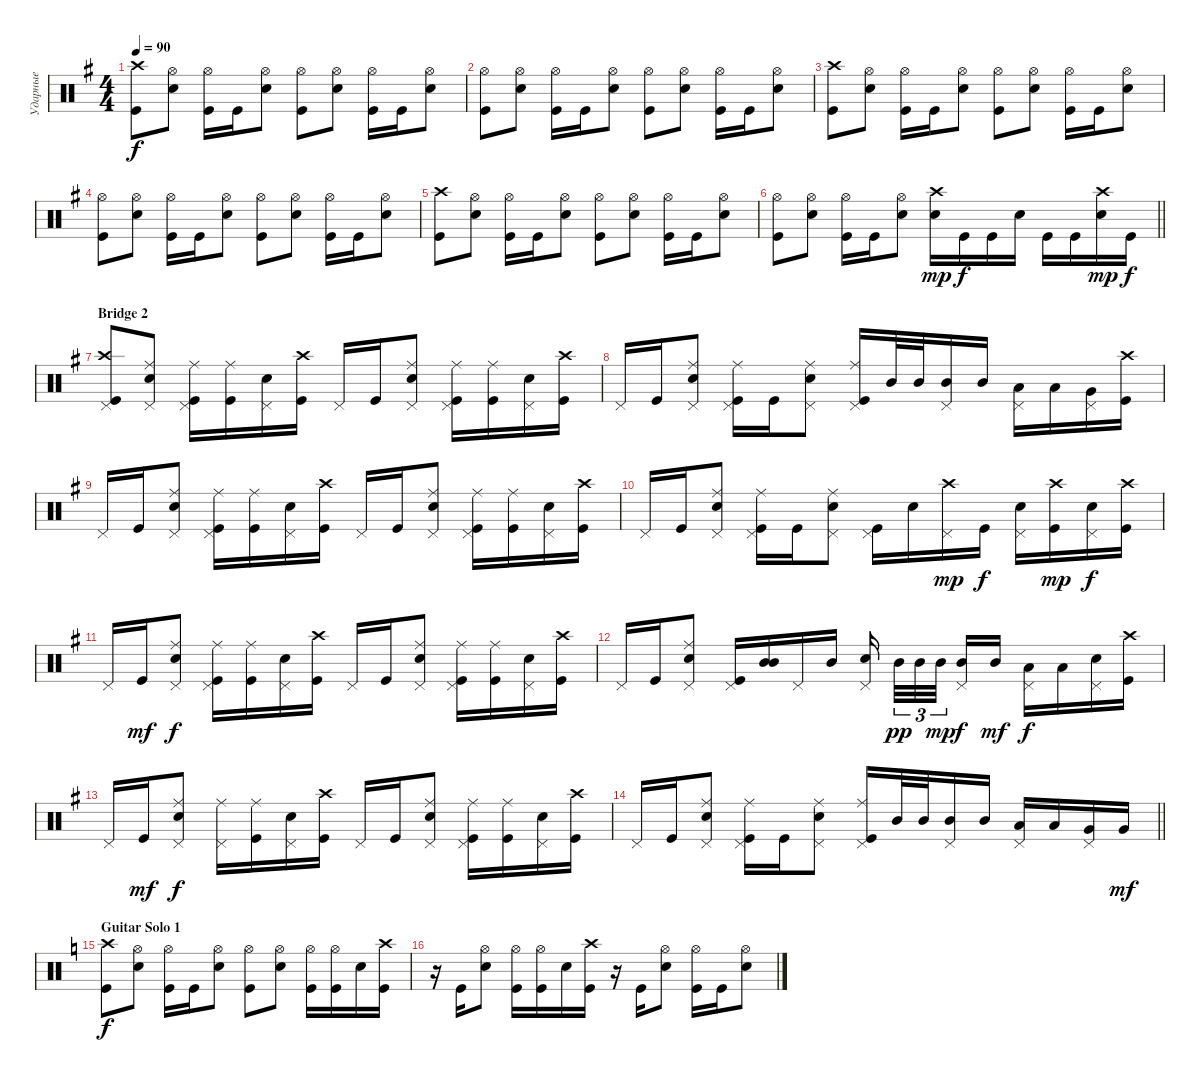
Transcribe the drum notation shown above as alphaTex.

\track ("Ударные" "Ударные") {instrument percussion}
\staff {score}
\articulation defaults
\ts (4 4)
\tempo 90
\clef neutral
\ks eminor
("Kick (hit)" "Crash high (hit)").8{dy f} ("Snare (hit) 2" "Hi-Hat (open)").8 ("Kick (hit)" "Hi-Hat (open)").16 "Kick (hit)".16 ("Snare (hit) 2" "Hi-Hat (open)").8 ("Kick (hit)" "Hi-Hat (open)").8 ("Snare (hit) 2" "Hi-Hat (open)").8 ("Kick (hit)" "Hi-Hat (open)").16 "Kick (hit)".16 ("Snare (hit) 2" "Hi-Hat (open)").8 |
("Kick (hit)" "Hi-Hat (open)").8 ("Snare (hit) 2" "Hi-Hat (open)").8 ("Kick (hit)" "Hi-Hat (open)").16 "Kick (hit)".16 ("Snare (hit) 2" "Hi-Hat (open)").8 ("Kick (hit)" "Hi-Hat (open)").8 ("Snare (hit) 2" "Hi-Hat (open)").8 ("Kick (hit)" "Hi-Hat (open)").16 "Kick (hit)".16 ("Snare (hit) 2" "Hi-Hat (open)").8 |
("Kick (hit)" "Crash high (hit)").8 ("Snare (hit) 2" "Hi-Hat (open)").8 ("Kick (hit)" "Hi-Hat (open)").16 "Kick (hit)".16 ("Snare (hit) 2" "Hi-Hat (open)").8 ("Kick (hit)" "Hi-Hat (open)").8 ("Snare (hit) 2" "Hi-Hat (open)").8 ("Kick (hit)" "Hi-Hat (open)").16 "Kick (hit)".16 ("Snare (hit) 2" "Hi-Hat (open)").8 |
("Kick (hit)" "Hi-Hat (open)").8 ("Snare (hit) 2" "Hi-Hat (open)").8 ("Kick (hit)" "Hi-Hat (open)").16 "Kick (hit)".16 ("Snare (hit) 2" "Hi-Hat (open)").8 ("Kick (hit)" "Hi-Hat (open)").8 ("Snare (hit) 2" "Hi-Hat (open)").8 ("Kick (hit)" "Hi-Hat (open)").16 "Kick (hit)".16 ("Snare (hit) 2" "Hi-Hat (open)").8 |
("Kick (hit)" "Crash high (hit)").8 ("Snare (hit) 2" "Hi-Hat (open)").8 ("Kick (hit)" "Hi-Hat (open)").16 "Kick (hit)".16 ("Snare (hit) 2" "Hi-Hat (open)").8 ("Kick (hit)" "Hi-Hat (open)").8 ("Snare (hit) 2" "Hi-Hat (open)").8 ("Kick (hit)" "Hi-Hat (open)").16 "Kick (hit)".16 ("Snare (hit) 2" "Hi-Hat (open)").8 |
\barLineRight lightlight
("Kick (hit)" "Hi-Hat (open)").8 ("Snare (hit) 2" "Hi-Hat (open)").8 ("Kick (hit)" "Hi-Hat (open)").16 "Kick (hit)".16 ("Snare (hit) 2" "Hi-Hat (open)").8 ("Snare (hit) 2" "Crash high (hit)").16{dy mp} "Kick (hit)".16{dy f} "Kick (hit)".16 "Snare (hit) 2".16 "Kick (hit)".16 "Kick (hit)".16 ("Snare (hit) 2" "Crash high (hit)").16{dy mp} "Kick (hit)".16{dy f} |
\section ("" "Bridge 2")
("Kick (hit)" "Crash high (hit)" "Pedal Hi-Hat (hit)").8 ("Snare (hit) 2" "Ride (middle)" "Pedal Hi-Hat (hit)").8 ("Kick (hit)" "Ride (middle)" "Pedal Hi-Hat (hit)").16 ("Kick (hit)" "Ride (middle)").16 ("Snare (hit) 2" "Pedal Hi-Hat (hit)").16 ("Kick (hit)" "Crash high (hit)").16 "Pedal Hi-Hat (hit)".16 "Kick (hit)".16 ("Snare (hit) 2" "Ride (middle)" "Pedal Hi-Hat (hit)").8 ("Kick (hit)" "Ride (middle)" "Pedal Hi-Hat (hit)").16 ("Kick (hit)" "Ride (middle)").16 ("Snare (hit) 2" "Pedal Hi-Hat (hit)").16 ("Kick (hit)" "Crash high (hit)").16 |
"Pedal Hi-Hat (hit)".16 "Kick (hit)".16 ("Snare (hit) 2" "Pedal Hi-Hat (hit)" "Ride (middle)").8 ("Kick (hit)" "Pedal Hi-Hat (hit)" "Ride (middle)").16 "Kick (hit)".16 ("Snare (hit) 2" "Pedal Hi-Hat (hit)" "Ride (middle)").8 ("Kick (hit)" "Pedal Hi-Hat (hit)" "Ride (middle)").16 "Mid Tom (hit)".32 "Mid Tom (hit)".32 ("Mid Tom (hit)" "Pedal Hi-Hat (hit)").16 "Mid Tom (hit)".16 ("Low Tom (hit)" "Pedal Hi-Hat (hit)").16 "Low Tom (hit)".16 ("Very Low Tom (hit)" "Pedal Hi-Hat (hit)").16 ("Kick (hit)" "Crash high (hit)").16 |
"Pedal Hi-Hat (hit)".16 "Kick (hit)".16 ("Snare (hit) 2" "Ride (middle)" "Pedal Hi-Hat (hit)").8 ("Kick (hit)" "Ride (middle)" "Pedal Hi-Hat (hit)").16 ("Kick (hit)" "Ride (middle)").16 ("Snare (hit) 2" "Pedal Hi-Hat (hit)").16 ("Kick (hit)" "Crash high (hit)").16 "Pedal Hi-Hat (hit)".16 "Kick (hit)".16 ("Snare (hit) 2" "Ride (middle)" "Pedal Hi-Hat (hit)").8 ("Kick (hit)" "Ride (middle)" "Pedal Hi-Hat (hit)").16 ("Kick (hit)" "Ride (middle)").16 ("Snare (hit) 2" "Pedal Hi-Hat (hit)").16 ("Kick (hit)" "Crash high (hit)").16 |
"Pedal Hi-Hat (hit)".16 "Kick (hit)".16 ("Snare (hit) 2" "Pedal Hi-Hat (hit)" "Ride (middle)").8 ("Kick (hit)" "Pedal Hi-Hat (hit)" "Ride (middle)").16 "Kick (hit)".16 ("Snare (hit) 2" "Pedal Hi-Hat (hit)" "Ride (middle)").8 ("Kick (hit)" "Pedal Hi-Hat (hit)").16 "Snare (hit) 2".16 ("Pedal Hi-Hat (hit)" "Crash high (hit)").16{dy mp} "Kick (hit)".16{dy f} ("Snare (hit) 2" "Pedal Hi-Hat (hit)").16 ("Kick (hit)" "Crash high (hit)").16{dy mp} ("Snare (hit) 2" "Pedal Hi-Hat (hit)").16{dy f} ("Kick (hit)" "Crash high (hit)").16 |
"Pedal Hi-Hat (hit)".16 "Kick (hit)".16{dy mf} ("Snare (hit) 2" "Ride (middle)" "Pedal Hi-Hat (hit)").8{dy f} ("Kick (hit)" "Ride (middle)" "Pedal Hi-Hat (hit)").16 ("Kick (hit)" "Ride (middle)").16 ("Snare (hit) 2" "Pedal Hi-Hat (hit)").16 ("Kick (hit)" "Crash high (hit)").16 "Pedal Hi-Hat (hit)".16 "Kick (hit)".16 ("Snare (hit) 2" "Ride (middle)" "Pedal Hi-Hat (hit)").8 ("Kick (hit)" "Ride (middle)" "Pedal Hi-Hat (hit)").16 ("Kick (hit)" "Ride (middle)").16 ("Snare (hit) 2" "Pedal Hi-Hat (hit)").16 ("Kick (hit)" "Crash high (hit)").16 |
"Pedal Hi-Hat (hit)".16 "Kick (hit)".16 ("Snare (hit) 2" "Pedal Hi-Hat (hit)" "Ride (middle)").8 ("Kick (hit)" "Pedal Hi-Hat (hit)").16 ("Mid Tom (hit)" "Mid Tom (hit)").16{bd 120} "Pedal Hi-Hat (hit)".16 "Mid Tom (hit)".16 ("Snare (hit) 2" "Pedal Hi-Hat (hit)").16{beam splitsecondary} "Mid Tom (hit)".32{tu (3 2) dy pp} "Mid Tom (hit)".32{tu (3 2)} "Mid Tom (hit)".32{tu (3 2) dy mp beam splitsecondary} ("Mid Tom (hit)" "Pedal Hi-Hat (hit)").16{dy f} "Mid Tom (hit)".16{dy mf} ("Low Tom (hit)" "Pedal Hi-Hat (hit)").16{dy f} "Low Tom (hit)".16 ("Pedal Hi-Hat (hit)" "Snare (hit) 2").16 ("Kick (hit)" "Crash high (hit)").16 |
"Pedal Hi-Hat (hit)".16 "Kick (hit)".16{dy mf} ("Snare (hit) 2" "Ride (middle)" "Pedal Hi-Hat (hit)").8{dy f} ("Ride (middle)" "Pedal Hi-Hat (hit)").16 ("Kick (hit)" "Ride (middle)").16 ("Snare (hit) 2" "Pedal Hi-Hat (hit)").16 ("Kick (hit)" "Crash high (hit)").16 "Pedal Hi-Hat (hit)".16 "Kick (hit)".16 ("Snare (hit) 2" "Ride (middle)" "Pedal Hi-Hat (hit)").8 ("Kick (hit)" "Ride (middle)" "Pedal Hi-Hat (hit)").16 ("Kick (hit)" "Ride (middle)").16 ("Snare (hit) 2" "Pedal Hi-Hat (hit)").16 ("Kick (hit)" "Crash high (hit)").16 |
\barLineRight lightlight "Pedal Hi-Hat (hit)".16 "Kick (hit)".16
("Snare (hit) 2" "Pedal Hi-Hat (hit)" "Ride (middle)").8 ("Kick (hit)" "Pedal Hi-Hat (hit)" "Ride (middle)").16 "Kick (hit)".16 ("Snare (hit) 2" "Pedal Hi-Hat (hit)" "Ride (middle)").8 ("Kick (hit)" "Pedal Hi-Hat (hit)" "Ride (middle)").16 "Mid Tom (hit)".32 "Mid Tom (hit)".32 ("Mid Tom (hit)" "Pedal Hi-Hat (hit)").16 "Mid Tom (hit)".16 ("Low Tom (hit)" "Pedal Hi-Hat (hit)").16 "Low Tom (hit)".16 ("Very Low Tom (hit)" "Pedal Hi-Hat (hit)").16 "Very Low Tom (hit)".16{dy mf} |
\section ("" "Guitar Solo 1")
\ks aminor
("Kick (hit)" "Crash high (hit)").8{dy f} ("Snare (hit) 2" "Hi-Hat (open)").8 ("Kick (hit)" "Hi-Hat (open)").16 "Kick (hit)".16 ("Snare (hit) 2" "Hi-Hat (open)").8 ("Kick (hit)" "Hi-Hat (open)").8 ("Snare (hit) 2" "Hi-Hat (open)").8 ("Kick (hit)" "Hi-Hat (open)").16 ("Kick (hit)" "Hi-Hat (open)").16 "Snare (hit) 2".16 ("Crash high (hit)" "Kick (hit)").16 |
r.16 "Kick (hit)".16 ("Snare (hit) 2" "Hi-Hat (open)").8 ("Kick (hit)" "Hi-Hat (open)").16 ("Kick (hit)" "Hi-Hat (open)").16 "Snare (hit) 2".16 ("Crash high (hit)" "Kick (hit)").16 r.16 "Kick (hit)".16 ("Snare (hit) 2" "Hi-Hat (open)").8 ("Kick (hit)" "Hi-Hat (open)").16 "Kick (hit)".16 ("Snare (hit) 2" "Hi-Hat (open)").8
